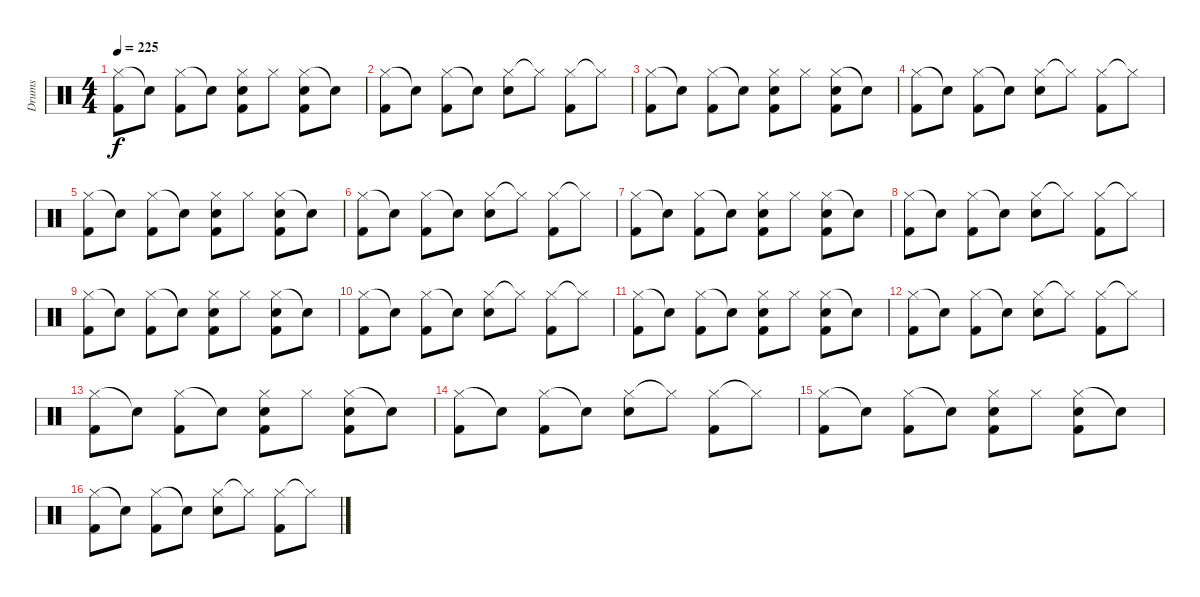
\track ("Drums" "Drums") {instrument percussion}
\staff {score}
\articulation defaults
\ts (4 4)
\tempo 225
\clef neutral
\ks c
("Hi-Hat (closed)" "Kick (hit) 2").8{dy f} "Snare (hit)"{t}.8 ("Hi-Hat (closed)" "Kick (hit) 2").8 "Snare (hit)"{t}.8 ("Hi-Hat (closed)" "Snare (hit) 2" "Kick (hit) 2").8 "Hi-Hat (closed)".8 ("Hi-Hat (closed)" "Snare (hit) 2" "Kick (hit) 2").8 "Snare (hit)"{t}.8 |
("Hi-Hat (closed)" "Kick (hit) 2").8 "Snare (hit)"{t}.8 ("Hi-Hat (closed)" "Kick (hit) 2").8 "Snare (hit)"{t}.8 ("Hi-Hat (closed)" "Snare (hit) 2").8 "Hi-Hat (closed)"{t}.8 ("Hi-Hat (closed)" "Kick (hit) 2").8 "Hi-Hat (closed)"{t}.8 |
("Hi-Hat (closed)" "Kick (hit) 2").8 "Snare (hit)"{t}.8 ("Hi-Hat (closed)" "Kick (hit) 2").8 "Snare (hit)"{t}.8 ("Hi-Hat (closed)" "Snare (hit) 2" "Kick (hit) 2").8 "Hi-Hat (closed)".8 ("Hi-Hat (closed)" "Snare (hit) 2" "Kick (hit) 2").8 "Snare (hit)"{t}.8 |
("Hi-Hat (closed)" "Kick (hit) 2").8 "Snare (hit)"{t}.8 ("Hi-Hat (closed)" "Kick (hit) 2").8 "Snare (hit)"{t}.8 ("Hi-Hat (closed)" "Snare (hit) 2").8 "Hi-Hat (closed)"{t}.8 ("Hi-Hat (closed)" "Kick (hit) 2").8 "Hi-Hat (closed)"{t}.8 |
("Hi-Hat (closed)" "Kick (hit) 2").8 "Snare (hit)"{t}.8 ("Hi-Hat (closed)" "Kick (hit) 2").8 "Snare (hit)"{t}.8 ("Hi-Hat (closed)" "Snare (hit) 2" "Kick (hit) 2").8 "Hi-Hat (closed)".8 ("Hi-Hat (closed)" "Snare (hit) 2" "Kick (hit) 2").8 "Snare (hit)"{t}.8 |
("Hi-Hat (closed)" "Kick (hit) 2").8 "Snare (hit)"{t}.8 ("Hi-Hat (closed)" "Kick (hit) 2").8 "Snare (hit)"{t}.8 ("Hi-Hat (closed)" "Snare (hit) 2").8 "Hi-Hat (closed)"{t}.8 ("Hi-Hat (closed)" "Kick (hit) 2").8 "Hi-Hat (closed)"{t}.8 |
("Hi-Hat (closed)" "Kick (hit) 2").8 "Snare (hit)"{t}.8 ("Hi-Hat (closed)" "Kick (hit) 2").8 "Snare (hit)"{t}.8 ("Hi-Hat (closed)" "Snare (hit) 2" "Kick (hit) 2").8 "Hi-Hat (closed)".8 ("Hi-Hat (closed)" "Snare (hit) 2" "Kick (hit) 2").8 "Snare (hit)"{t}.8 |
("Hi-Hat (closed)" "Kick (hit) 2").8 "Snare (hit)"{t}.8 ("Hi-Hat (closed)" "Kick (hit) 2").8 "Snare (hit)"{t}.8 ("Hi-Hat (closed)" "Snare (hit) 2").8 "Hi-Hat (closed)"{t}.8 ("Hi-Hat (closed)" "Kick (hit) 2").8 "Hi-Hat (closed)"{t}.8 |
("Hi-Hat (closed)" "Kick (hit) 2").8 "Snare (hit)"{t}.8 ("Hi-Hat (closed)" "Kick (hit) 2").8 "Snare (hit)"{t}.8 ("Hi-Hat (closed)" "Snare (hit) 2" "Kick (hit) 2").8 "Hi-Hat (closed)".8 ("Hi-Hat (closed)" "Snare (hit) 2" "Kick (hit) 2").8 "Snare (hit)"{t}.8 |
("Hi-Hat (closed)" "Kick (hit) 2").8 "Snare (hit)"{t}.8 ("Hi-Hat (closed)" "Kick (hit) 2").8 "Snare (hit)"{t}.8 ("Hi-Hat (closed)" "Snare (hit) 2").8 "Hi-Hat (closed)"{t}.8 ("Hi-Hat (closed)" "Kick (hit) 2").8 "Hi-Hat (closed)"{t}.8 |
("Hi-Hat (closed)" "Kick (hit) 2").8 "Snare (hit)"{t}.8 ("Hi-Hat (closed)" "Kick (hit) 2").8 "Snare (hit)"{t}.8 ("Hi-Hat (closed)" "Snare (hit) 2" "Kick (hit) 2").8 "Hi-Hat (closed)".8 ("Hi-Hat (closed)" "Snare (hit) 2" "Kick (hit) 2").8 "Snare (hit)"{t}.8 |
("Hi-Hat (closed)" "Kick (hit) 2").8 "Snare (hit)"{t}.8 ("Hi-Hat (closed)" "Kick (hit) 2").8 "Snare (hit)"{t}.8 ("Hi-Hat (closed)" "Snare (hit) 2").8 "Hi-Hat (closed)"{t}.8 ("Hi-Hat (closed)" "Kick (hit) 2").8 "Hi-Hat (closed)"{t}.8 |
("Hi-Hat (closed)" "Kick (hit) 2").8 "Snare (hit)"{t}.8 ("Hi-Hat (closed)" "Kick (hit) 2").8 "Snare (hit)"{t}.8 ("Hi-Hat (closed)" "Snare (hit) 2" "Kick (hit) 2").8 "Hi-Hat (closed)".8 ("Hi-Hat (closed)" "Snare (hit) 2" "Kick (hit) 2").8 "Snare (hit)"{t}.8 |
("Hi-Hat (closed)" "Kick (hit) 2").8 "Snare (hit)"{t}.8 ("Hi-Hat (closed)" "Kick (hit) 2").8 "Snare (hit)"{t}.8 ("Hi-Hat (closed)" "Snare (hit) 2").8 "Hi-Hat (closed)"{t}.8 ("Hi-Hat (closed)" "Kick (hit) 2").8 "Hi-Hat (closed)"{t}.8 |
("Hi-Hat (closed)" "Kick (hit) 2").8 "Snare (hit)"{t}.8 ("Hi-Hat (closed)" "Kick (hit) 2").8 "Snare (hit)"{t}.8 ("Hi-Hat (closed)" "Snare (hit) 2" "Kick (hit) 2").8 "Hi-Hat (closed)".8 ("Hi-Hat (closed)" "Snare (hit) 2" "Kick (hit) 2").8 "Snare (hit)"{t}.8 |
("Hi-Hat (closed)" "Kick (hit) 2").8 "Snare (hit)"{t}.8 ("Hi-Hat (closed)" "Kick (hit) 2").8 "Snare (hit)"{t}.8 ("Hi-Hat (closed)" "Snare (hit) 2").8 "Hi-Hat (closed)"{t}.8 ("Hi-Hat (closed)" "Kick (hit) 2").8 "Hi-Hat (closed)"{t}.8
